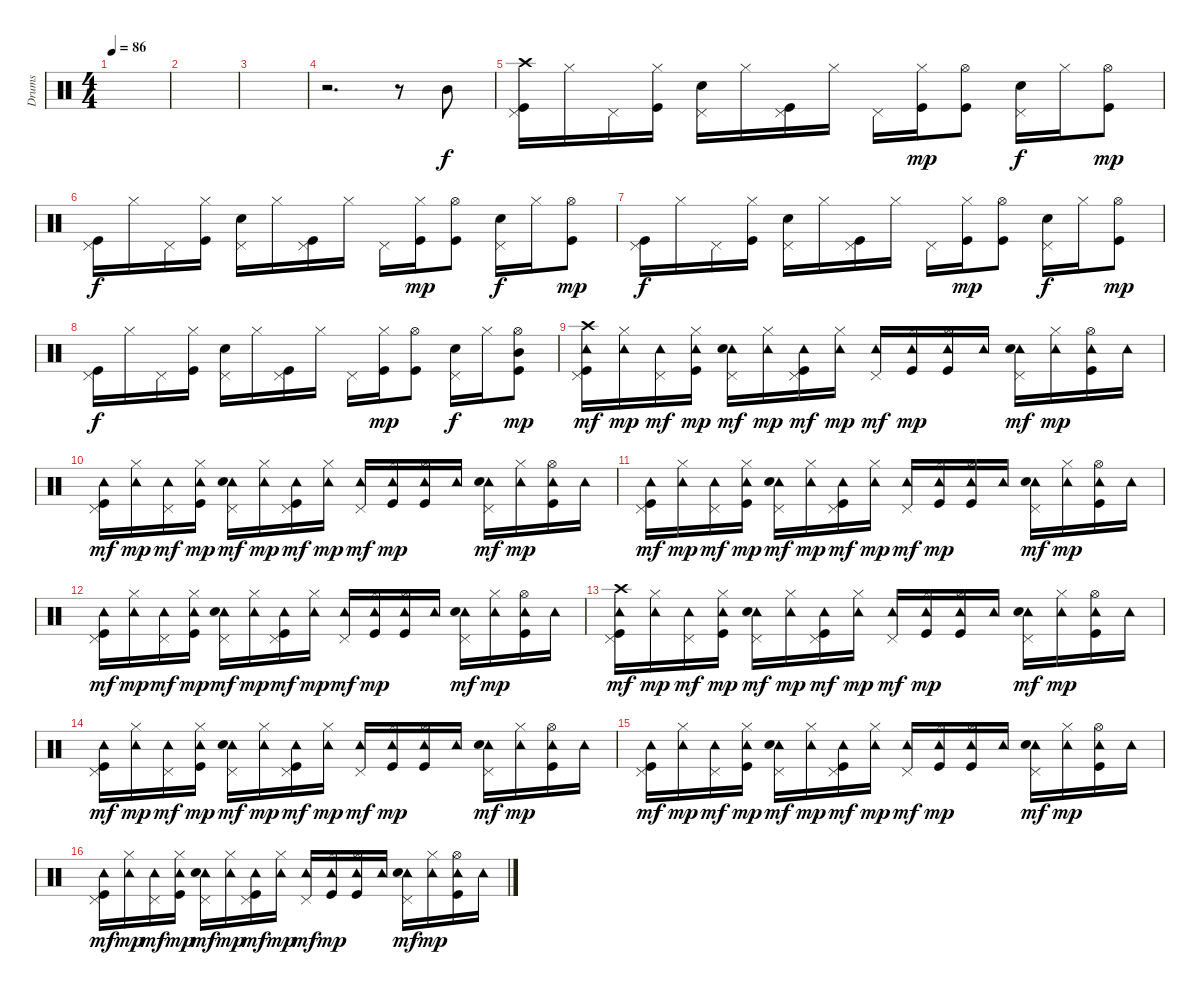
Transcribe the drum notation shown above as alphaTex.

\track ("Drums" "Drums") {instrument percussion}
\staff {score}
\articulation defaults
\ts (4 4)
\tempo 86
\clef neutral
\ks c
|
|
|
r.2{d} r.8 "Mid Tom (hit)".8 |
("Crash high (hit)" "Pedal Hi-Hat (hit)" "Kick (hit)").16 "Hi-Hat (closed)".16 "Pedal Hi-Hat (hit)".16 ("Hi-Hat (closed)" "Kick (hit)").16 ("Pedal Hi-Hat (hit)" "Electric Snare (hit)").16 "Hi-Hat (closed)".16 ("Pedal Hi-Hat (hit)" "Kick (hit)").16 "Hi-Hat (closed)".16 "Pedal Hi-Hat (hit)".16 ("Hi-Hat (closed)" "Kick (hit)").16{dy mp} ("Hi-Hat (open)" "Kick (hit)").8 ("Pedal Hi-Hat (hit)" "Electric Snare (hit)").16{dy f} "Hi-Hat (closed)".16 ("Hi-Hat (open)" "Kick (hit)").8{dy mp} |
("Pedal Hi-Hat (hit)" "Kick (hit)").16{dy f} "Hi-Hat (closed)".16 "Pedal Hi-Hat (hit)".16 ("Hi-Hat (closed)" "Kick (hit)").16 ("Pedal Hi-Hat (hit)" "Electric Snare (hit)").16 "Hi-Hat (closed)".16 ("Pedal Hi-Hat (hit)" "Kick (hit)").16 "Hi-Hat (closed)".16 "Pedal Hi-Hat (hit)".16 ("Hi-Hat (closed)" "Kick (hit)").16{dy mp} ("Hi-Hat (open)" "Kick (hit)").8 ("Pedal Hi-Hat (hit)" "Electric Snare (hit)").16{dy f} "Hi-Hat (closed)".16 ("Hi-Hat (open)" "Kick (hit)").8{dy mp} |
("Pedal Hi-Hat (hit)" "Kick (hit)").16{dy f} "Hi-Hat (closed)".16 "Pedal Hi-Hat (hit)".16 ("Hi-Hat (closed)" "Kick (hit)").16 ("Pedal Hi-Hat (hit)" "Electric Snare (hit)").16 "Hi-Hat (closed)".16 ("Pedal Hi-Hat (hit)" "Kick (hit)").16 "Hi-Hat (closed)".16 "Pedal Hi-Hat (hit)".16 ("Hi-Hat (closed)" "Kick (hit)").16{dy mp} ("Hi-Hat (open)" "Kick (hit)").8 ("Pedal Hi-Hat (hit)" "Electric Snare (hit)").16{dy f} "Hi-Hat (closed)".16 ("Hi-Hat (open)" "Kick (hit)").8{dy mp} |
("Pedal Hi-Hat (hit)" "Kick (hit)").16{dy f} "Hi-Hat (closed)".16 "Pedal Hi-Hat (hit)".16 ("Hi-Hat (closed)" "Kick (hit)").16 ("Pedal Hi-Hat (hit)" "Electric Snare (hit)").16 "Hi-Hat (closed)".16 ("Pedal Hi-Hat (hit)" "Kick (hit)").16 "Hi-Hat (closed)".16 "Pedal Hi-Hat (hit)".16 ("Hi-Hat (closed)" "Kick (hit)").16{dy mp} ("Hi-Hat (open)" "Kick (hit)").8 ("Pedal Hi-Hat (hit)" "Electric Snare (hit)").16{dy f} "Hi-Hat (closed)".16 ("Hi-Hat (open)" "Mid Tom (hit)" "Kick (hit)").8{dy mp} |
("Crash high (hit)" "Tambourine (hit)" "Pedal Hi-Hat (hit)" "Kick (hit)").16{dy mf} ("Tambourine (hit)" "Hi-Hat (closed)").16{dy mp} ("Tambourine (hit)" "Pedal Hi-Hat (hit)").16{dy mf} ("Tambourine (hit)" "Hi-Hat (closed)" "Kick (hit)").16{dy mp} ("Tambourine (hit)" "Pedal Hi-Hat (hit)" "Electric Snare (hit)").16{dy mf} ("Tambourine (hit)" "Hi-Hat (closed)").16{dy mp} ("Tambourine (hit)" "Pedal Hi-Hat (hit)" "Kick (hit)").16{dy mf} ("Tambourine (hit)" "Hi-Hat (closed)").16{dy mp} ("Tambourine (hit)" "Pedal Hi-Hat (hit)").16{dy mf} ("Tambourine (hit)" "Hi-Hat (closed)" "Kick (hit)").16{dy mp} ("Tambourine (hit)" "Hi-Hat (open)" "Kick (hit)").16 "Tambourine (hit)".16 ("Tambourine (hit)" "Pedal Hi-Hat (hit)" "Electric Snare (hit)").16{dy mf} ("Tambourine (hit)" "Hi-Hat (closed)").16{dy mp} ("Tambourine (hit)" "Hi-Hat (open)" "Kick (hit)").16 "Tambourine (hit)".16 |
("Tambourine (hit)" "Pedal Hi-Hat (hit)" "Kick (hit)").16{dy mf} ("Tambourine (hit)" "Hi-Hat (closed)").16{dy mp} ("Tambourine (hit)" "Pedal Hi-Hat (hit)").16{dy mf} ("Tambourine (hit)" "Hi-Hat (closed)" "Kick (hit)").16{dy mp} ("Tambourine (hit)" "Pedal Hi-Hat (hit)" "Electric Snare (hit)").16{dy mf} ("Tambourine (hit)" "Hi-Hat (closed)").16{dy mp} ("Tambourine (hit)" "Pedal Hi-Hat (hit)" "Kick (hit)").16{dy mf} ("Tambourine (hit)" "Hi-Hat (closed)").16{dy mp} ("Tambourine (hit)" "Pedal Hi-Hat (hit)").16{dy mf} ("Tambourine (hit)" "Hi-Hat (closed)" "Kick (hit)").16{dy mp} ("Tambourine (hit)" "Hi-Hat (open)" "Kick (hit)").16 "Tambourine (hit)".16 ("Tambourine (hit)" "Pedal Hi-Hat (hit)" "Electric Snare (hit)").16{dy mf} ("Tambourine (hit)" "Hi-Hat (closed)").16{dy mp} ("Tambourine (hit)" "Hi-Hat (open)" "Kick (hit)").16 "Tambourine (hit)".16 |
("Tambourine (hit)" "Pedal Hi-Hat (hit)" "Kick (hit)").16{dy mf} ("Tambourine (hit)" "Hi-Hat (closed)").16{dy mp} ("Tambourine (hit)" "Pedal Hi-Hat (hit)").16{dy mf} ("Tambourine (hit)" "Hi-Hat (closed)" "Kick (hit)").16{dy mp} ("Tambourine (hit)" "Pedal Hi-Hat (hit)" "Electric Snare (hit)").16{dy mf} ("Tambourine (hit)" "Hi-Hat (closed)").16{dy mp} ("Tambourine (hit)" "Pedal Hi-Hat (hit)" "Kick (hit)").16{dy mf} ("Tambourine (hit)" "Hi-Hat (closed)").16{dy mp} ("Tambourine (hit)" "Pedal Hi-Hat (hit)").16{dy mf} ("Tambourine (hit)" "Hi-Hat (closed)" "Kick (hit)").16{dy mp} ("Tambourine (hit)" "Hi-Hat (open)" "Kick (hit)").16 "Tambourine (hit)".16 ("Tambourine (hit)" "Pedal Hi-Hat (hit)" "Electric Snare (hit)").16{dy mf} ("Tambourine (hit)" "Hi-Hat (closed)").16{dy mp} ("Tambourine (hit)" "Hi-Hat (open)" "Kick (hit)").16 "Tambourine (hit)".16 |
("Tambourine (hit)" "Pedal Hi-Hat (hit)" "Kick (hit)").16{dy mf} ("Tambourine (hit)" "Hi-Hat (closed)").16{dy mp} ("Tambourine (hit)" "Pedal Hi-Hat (hit)").16{dy mf} ("Tambourine (hit)" "Hi-Hat (closed)" "Kick (hit)").16{dy mp} ("Tambourine (hit)" "Pedal Hi-Hat (hit)" "Electric Snare (hit)").16{dy mf} ("Tambourine (hit)" "Hi-Hat (closed)").16{dy mp} ("Tambourine (hit)" "Pedal Hi-Hat (hit)" "Kick (hit)").16{dy mf} ("Tambourine (hit)" "Hi-Hat (closed)").16{dy mp} ("Tambourine (hit)" "Pedal Hi-Hat (hit)").16{dy mf} ("Tambourine (hit)" "Hi-Hat (closed)" "Kick (hit)").16{dy mp} ("Tambourine (hit)" "Hi-Hat (open)" "Kick (hit)").16 "Tambourine (hit)".16 ("Tambourine (hit)" "Pedal Hi-Hat (hit)" "Electric Snare (hit)").16{dy mf} ("Tambourine (hit)" "Hi-Hat (closed)").16{dy mp} ("Tambourine (hit)" "Hi-Hat (open)" "Kick (hit)").16 "Tambourine (hit)".16 |
("Crash high (hit)" "Tambourine (hit)" "Pedal Hi-Hat (hit)" "Kick (hit)").16{dy mf} ("Tambourine (hit)" "Hi-Hat (closed)").16{dy mp} ("Tambourine (hit)" "Pedal Hi-Hat (hit)").16{dy mf} ("Tambourine (hit)" "Hi-Hat (closed)" "Kick (hit)").16{dy mp} ("Tambourine (hit)" "Pedal Hi-Hat (hit)" "Electric Snare (hit)").16{dy mf} ("Tambourine (hit)" "Hi-Hat (closed)").16{dy mp} ("Tambourine (hit)" "Pedal Hi-Hat (hit)" "Kick (hit)").16{dy mf} ("Tambourine (hit)" "Hi-Hat (closed)").16{dy mp} ("Tambourine (hit)" "Pedal Hi-Hat (hit)").16{dy mf} ("Tambourine (hit)" "Hi-Hat (closed)" "Kick (hit)").16{dy mp} ("Tambourine (hit)" "Hi-Hat (open)" "Kick (hit)").16 "Tambourine (hit)".16 ("Tambourine (hit)" "Pedal Hi-Hat (hit)" "Electric Snare (hit)").16{dy mf} ("Tambourine (hit)" "Hi-Hat (closed)").16{dy mp} ("Tambourine (hit)" "Hi-Hat (open)" "Kick (hit)").16 "Tambourine (hit)".16 |
("Tambourine (hit)" "Pedal Hi-Hat (hit)" "Kick (hit)").16{dy mf} ("Tambourine (hit)" "Hi-Hat (closed)").16{dy mp} ("Tambourine (hit)" "Pedal Hi-Hat (hit)").16{dy mf} ("Tambourine (hit)" "Hi-Hat (closed)" "Kick (hit)").16{dy mp} ("Tambourine (hit)" "Pedal Hi-Hat (hit)" "Electric Snare (hit)").16{dy mf} ("Tambourine (hit)" "Hi-Hat (closed)").16{dy mp} ("Tambourine (hit)" "Pedal Hi-Hat (hit)" "Kick (hit)").16{dy mf} ("Tambourine (hit)" "Hi-Hat (closed)").16{dy mp} ("Tambourine (hit)" "Pedal Hi-Hat (hit)").16{dy mf} ("Tambourine (hit)" "Hi-Hat (closed)" "Kick (hit)").16{dy mp} ("Tambourine (hit)" "Hi-Hat (open)" "Kick (hit)").16 "Tambourine (hit)".16 ("Tambourine (hit)" "Pedal Hi-Hat (hit)" "Electric Snare (hit)").16{dy mf} ("Tambourine (hit)" "Hi-Hat (closed)").16{dy mp} ("Tambourine (hit)" "Hi-Hat (open)" "Kick (hit)").16 "Tambourine (hit)".16 |
("Tambourine (hit)" "Pedal Hi-Hat (hit)" "Kick (hit)").16{dy mf} ("Tambourine (hit)" "Hi-Hat (closed)").16{dy mp} ("Tambourine (hit)" "Pedal Hi-Hat (hit)").16{dy mf} ("Tambourine (hit)" "Hi-Hat (closed)" "Kick (hit)").16{dy mp} ("Tambourine (hit)" "Pedal Hi-Hat (hit)" "Electric Snare (hit)").16{dy mf} ("Tambourine (hit)" "Hi-Hat (closed)").16{dy mp} ("Tambourine (hit)" "Pedal Hi-Hat (hit)" "Kick (hit)").16{dy mf} ("Tambourine (hit)" "Hi-Hat (closed)").16{dy mp} ("Tambourine (hit)" "Pedal Hi-Hat (hit)").16{dy mf} ("Tambourine (hit)" "Hi-Hat (closed)" "Kick (hit)").16{dy mp} ("Tambourine (hit)" "Hi-Hat (open)" "Kick (hit)").16 "Tambourine (hit)".16 ("Tambourine (hit)" "Pedal Hi-Hat (hit)" "Electric Snare (hit)").16{dy mf} ("Tambourine (hit)" "Hi-Hat (closed)").16{dy mp} ("Tambourine (hit)" "Hi-Hat (open)" "Kick (hit)").16 "Tambourine (hit)".16 |
("Tambourine (hit)" "Pedal Hi-Hat (hit)" "Kick (hit)").16{dy mf} ("Tambourine (hit)" "Hi-Hat (closed)").16{dy mp} ("Tambourine (hit)" "Pedal Hi-Hat (hit)").16{dy mf} ("Tambourine (hit)" "Hi-Hat (closed)" "Kick (hit)").16{dy mp} ("Tambourine (hit)" "Pedal Hi-Hat (hit)" "Electric Snare (hit)").16{dy mf} ("Tambourine (hit)" "Hi-Hat (closed)").16{dy mp} ("Tambourine (hit)" "Pedal Hi-Hat (hit)" "Kick (hit)").16{dy mf} ("Tambourine (hit)" "Hi-Hat (closed)").16{dy mp} ("Tambourine (hit)" "Pedal Hi-Hat (hit)").16{dy mf} ("Tambourine (hit)" "Hi-Hat (closed)" "Kick (hit)").16{dy mp} ("Tambourine (hit)" "Hi-Hat (open)" "Kick (hit)").16 "Tambourine (hit)".16 ("Tambourine (hit)" "Pedal Hi-Hat (hit)" "Electric Snare (hit)").16{dy mf} ("Tambourine (hit)" "Hi-Hat (closed)").16{dy mp} ("Tambourine (hit)" "Hi-Hat (open)" "Kick (hit)").16 "Tambourine (hit)".16
